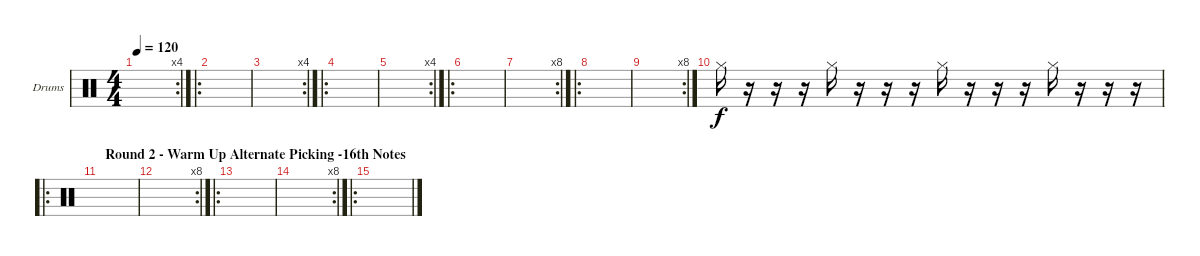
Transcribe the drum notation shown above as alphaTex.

\defaultSystemsLayout 4
\bracketExtendMode groupsimilarinstruments
\firstSystemTrackNameOrientation horizontal
\otherSystemsTrackNameOrientation horizontal
\track ("Drumkit" "Drums") {instrument percussion}
\staff {score}
\articulation defaults
\rc 4
\ts (4 4)
\tempo 120
\clef neutral
\scale
0.333333
\ks c
|
\ro
\scale
0.365079 |
\rc 4
\scale
0.323077 |
\ro
\scale
0.353846 |
\rc 4
\scale
0.323077 |
\ro
\scale
0.343284 |
\rc 8
\scale
0.313433 |
\ro
\scale
0.343284 |
\rc 8
\scale
0.333333 |
\scale
0.301587 "Hi-Hat (closed)".16 r.16 r.16 r.16 "Hi-Hat (closed)".16 r.16 r.16 r.16 "Hi-Hat (closed)".16 r.16 r.16 r.16 "Hi-Hat (closed)".16 r.16 r.16 r.16 |
\ro
\section ("" " Round 2 - Warm Up Alternate Picking -16th Notes")
\scale
0.365079 |
\rc 8
\scale
0.323077 |
\ro
\scale
0.353846 |
\rc 8
\scale
0.323077 |
\ro
\scale
0.377049 |
\scale
0.311475
